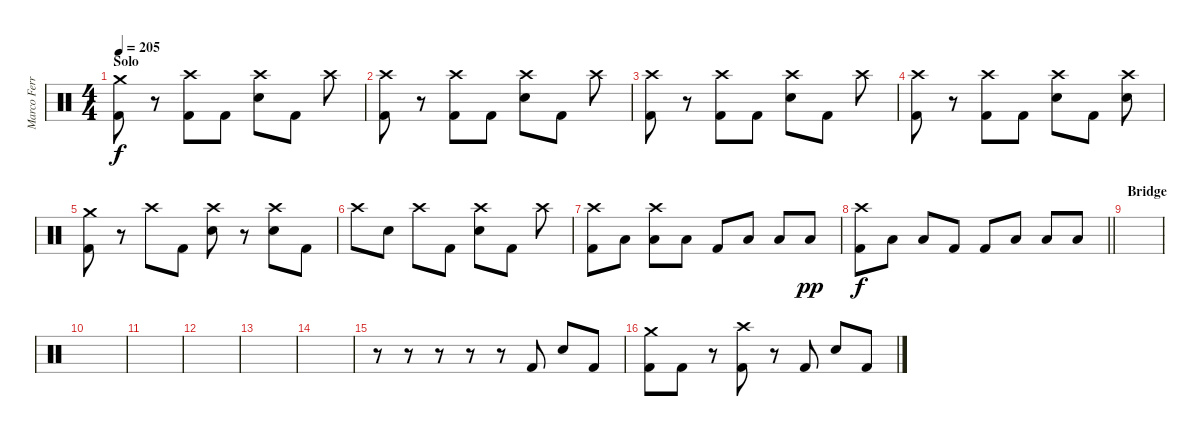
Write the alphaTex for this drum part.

\track ("Marco Ferro" "Marco Ferr") {instrument percussion}
\staff {score}
\articulation defaults
\ts (4 4)
\section ("" "Solo")
\tempo 205
\clef neutral
\ks c
("Crash medium (hit)" "Kick (hit) 2").8{dy f} r.8 ("Crash high (hit)" "Kick (hit) 2").8 "Kick (hit) 2".8 ("Crash high (hit)" "Electric Snare (hit)").8 "Kick (hit) 2".8 "Crash high (hit)".8 |
("Crash high (hit)" "Kick (hit) 2").8 r.8 ("Crash high (hit)" "Kick (hit) 2").8 "Kick (hit) 2".8 ("Crash high (hit)" "Electric Snare (hit)").8 "Kick (hit) 2".8 "Crash high (hit)".8 |
("Crash high (hit)" "Kick (hit) 2").8 r.8 ("Crash high (hit)" "Kick (hit) 2").8 "Kick (hit) 2".8 ("Crash high (hit)" "Electric Snare (hit)").8 "Kick (hit) 2".8 "Crash high (hit)".8 |
("Crash high (hit)" "Kick (hit) 2").8 r.8 ("Crash high (hit)" "Kick (hit) 2").8 "Kick (hit) 2".8 ("Crash high (hit)" "Electric Snare (hit)").8 "Kick (hit) 2".8 ("Crash high (hit)" "Electric Snare (hit)").8 |
("Crash medium (hit)" "Kick (hit) 2").8 r.8 "Crash high (hit)".8 "Kick (hit) 2".8 ("Crash high (hit)" "Electric Snare (hit)").8 r.8 ("Crash high (hit)" "Electric Snare (hit)").8 "Kick (hit) 2".8 |
"Crash high (hit)".8 "Electric Snare (hit)".8 "Crash high (hit)".8 "Kick (hit) 2".8 ("Crash high (hit)" "Electric Snare (hit)").8 "Kick (hit) 2".8 "Crash high (hit)".8 |
("Crash high (hit)" "Kick (hit) 2").8 "Low Tom (hit)".8 ("Crash high (hit)" "Low Tom (hit)").8 "Low Floor Tom (hit)".8 "Kick (hit) 2".8 "Low Tom (hit)".8 "Low Tom (hit)".8 "Low Floor Tom (hit)".8{dy pp} |
\barLineRight lightlight
("Crash high (hit)" "Kick (hit) 2").8{dy f} "Low Tom (hit)".8 "Low Tom (hit)".8 "Kick (hit) 2".8 "Kick (hit) 2".8 "Low Tom (hit)".8 "Low Tom (hit)".8 "Low Tom (hit)".8 |
\section ("" "Bridge")
|
|
|
|
|
|
r.8 r.8 r.8 r.8 r.8 "Kick (hit) 2".8 "Electric Snare (hit)".8 "Kick (hit) 2".8 |
("Crash medium (hit)" "Kick (hit) 2").8 "Kick (hit) 2".8 r.8 ("Crash high (hit)" "Kick (hit) 2").8 r.8 "Kick (hit) 2".8 "Electric Snare (hit)".8 "Kick (hit) 2".8
